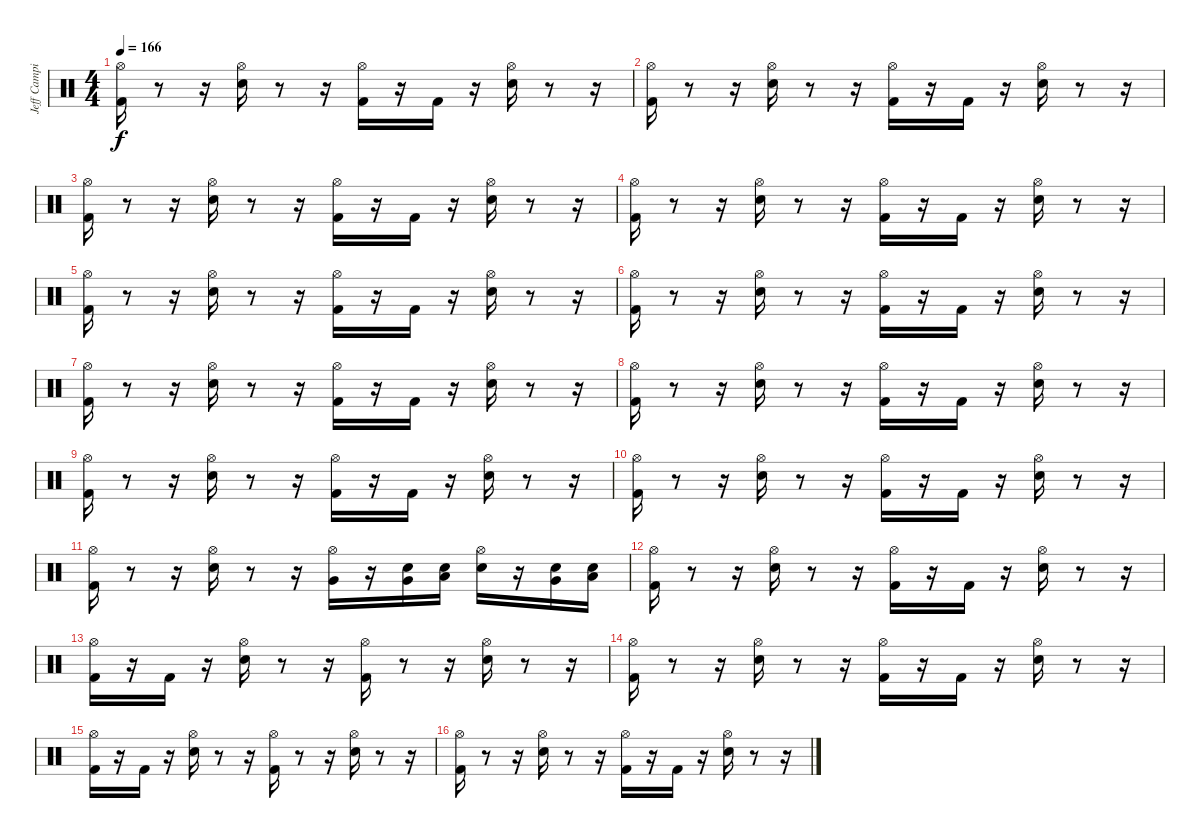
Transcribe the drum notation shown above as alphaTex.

\track ("Jeff Campitelli" "Jeff Campi") {instrument percussion}
\staff {score}
\articulation defaults
\ts (4 4)
\tempo 166
\clef neutral
\ks c
("Kick (hit) 2" "Hi-Hat (open)").16{dy f} r.8 r.16 ("Hi-Hat (open)" "Snare (hit) 2").16 r.8 r.16 ("Hi-Hat (open)" "Kick (hit) 2").16 r.16 "Kick (hit) 2".16 r.16 ("Hi-Hat (open)" "Snare (hit) 2").16 r.8 r.16 |
("Kick (hit) 2" "Hi-Hat (open)").16 r.8 r.16 ("Hi-Hat (open)" "Snare (hit) 2").16 r.8 r.16 ("Hi-Hat (open)" "Kick (hit) 2").16 r.16 "Kick (hit) 2".16 r.16 ("Hi-Hat (open)" "Snare (hit) 2").16 r.8 r.16 |
("Kick (hit) 2" "Hi-Hat (open)").16 r.8 r.16 ("Hi-Hat (open)" "Snare (hit) 2").16 r.8 r.16 ("Hi-Hat (open)" "Kick (hit) 2").16 r.16 "Kick (hit) 2".16 r.16 ("Hi-Hat (open)" "Snare (hit) 2").16 r.8 r.16 |
("Kick (hit) 2" "Hi-Hat (open)").16 r.8 r.16 ("Hi-Hat (open)" "Snare (hit) 2").16 r.8 r.16 ("Hi-Hat (open)" "Kick (hit) 2").16 r.16 "Kick (hit) 2".16 r.16 ("Hi-Hat (open)" "Snare (hit) 2").16 r.8 r.16 |
("Kick (hit) 2" "Hi-Hat (open)").16 r.8 r.16 ("Hi-Hat (open)" "Snare (hit) 2").16 r.8 r.16 ("Hi-Hat (open)" "Kick (hit) 2").16 r.16 "Kick (hit) 2".16 r.16 ("Hi-Hat (open)" "Snare (hit) 2").16 r.8 r.16 |
("Kick (hit) 2" "Hi-Hat (open)").16 r.8 r.16 ("Hi-Hat (open)" "Snare (hit) 2").16 r.8 r.16 ("Hi-Hat (open)" "Kick (hit) 2").16 r.16 "Kick (hit) 2".16 r.16 ("Hi-Hat (open)" "Snare (hit) 2").16 r.8 r.16 |
("Kick (hit) 2" "Hi-Hat (open)").16 r.8 r.16 ("Hi-Hat (open)" "Snare (hit) 2").16 r.8 r.16 ("Hi-Hat (open)" "Kick (hit) 2").16 r.16 "Kick (hit) 2".16 r.16 ("Hi-Hat (open)" "Snare (hit) 2").16 r.8 r.16 |
("Kick (hit) 2" "Hi-Hat (open)").16 r.8 r.16 ("Hi-Hat (open)" "Snare (hit) 2").16 r.8 r.16 ("Hi-Hat (open)" "Kick (hit) 2").16 r.16 "Kick (hit) 2".16 r.16 ("Hi-Hat (open)" "Snare (hit) 2").16 r.8 r.16 |
("Kick (hit) 2" "Hi-Hat (open)").16 r.8 r.16 ("Hi-Hat (open)" "Snare (hit) 2").16 r.8 r.16 ("Hi-Hat (open)" "Kick (hit) 2").16 r.16 "Kick (hit) 2".16 r.16 ("Hi-Hat (open)" "Snare (hit) 2").16 r.8 r.16 |
("Kick (hit) 2" "Hi-Hat (open)").16 r.8 r.16 ("Hi-Hat (open)" "Snare (hit) 2").16 r.8 r.16 ("Hi-Hat (open)" "Kick (hit) 2").16 r.16 "Kick (hit) 2".16 r.16 ("Hi-Hat (open)" "Snare (hit) 2").16 r.8 r.16 |
("Kick (hit) 2" "Hi-Hat (open)").16 r.8 r.16 ("Hi-Hat (open)" "Snare (hit) 2").16 r.8 r.16 ("Very Low Tom (hit)" "Hi-Hat (open)").16 r.16 ("Very Low Tom (hit)" "Snare (hit) 2").16 ("Low Floor Tom (hit)" "Snare (hit) 2").16 ("Snare (hit) 2" "Hi-Hat (open)").16 r.16 ("Very Low Tom (hit)" "Snare (hit) 2").16 ("Low Floor Tom (hit)" "Snare (hit) 2").16 |
("Hi-Hat (open)" "Kick (hit) 2").16 r.8 r.16 ("Snare (hit) 2" "Hi-Hat (open)").16 r.8 r.16 ("Kick (hit) 2" "Hi-Hat (open)").16 r.16 "Kick (hit) 2".16 r.16 ("Hi-Hat (open)" "Snare (hit) 2").16 r.8 r.16 |
("Hi-Hat (open)" "Kick (hit) 2").16 r.16 "Kick (hit) 2".16 r.16 ("Snare (hit) 2" "Hi-Hat (open)").16 r.8 r.16 ("Hi-Hat (open)" "Kick (hit) 2").16 r.8 r.16 ("Hi-Hat (open)" "Snare (hit) 2").16 r.8 r.16 |
("Hi-Hat (open)" "Kick (hit) 2").16 r.8 r.16 ("Snare (hit) 2" "Hi-Hat (open)").16 r.8 r.16 ("Kick (hit) 2" "Hi-Hat (open)").16 r.16 "Kick (hit) 2".16 r.16 ("Hi-Hat (open)" "Snare (hit) 2").16 r.8 r.16 |
("Hi-Hat (open)" "Kick (hit) 2").16 r.16 "Kick (hit) 2".16 r.16 ("Snare (hit) 2" "Hi-Hat (open)").16 r.8 r.16 ("Hi-Hat (open)" "Kick (hit) 2").16 r.8 r.16 ("Hi-Hat (open)" "Snare (hit) 2").16 r.8 r.16 |
("Hi-Hat (open)" "Kick (hit) 2").16 r.8 r.16 ("Snare (hit) 2" "Hi-Hat (open)").16 r.8 r.16 ("Kick (hit) 2" "Hi-Hat (open)").16 r.16 "Kick (hit) 2".16 r.16 ("Hi-Hat (open)" "Snare (hit) 2").16 r.8 r.16
